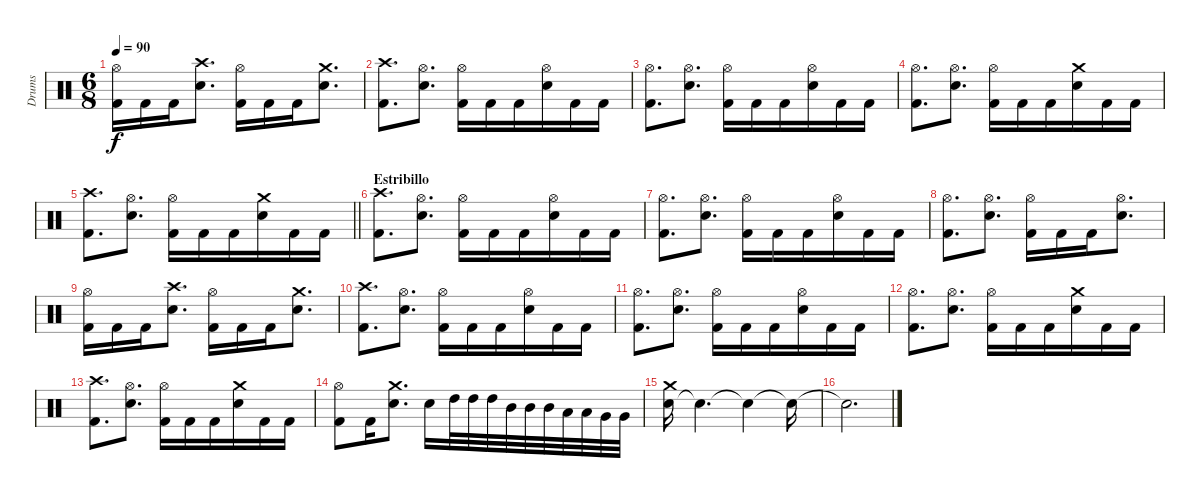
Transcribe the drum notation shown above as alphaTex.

\track ("Drums" "Drums") {instrument percussion}
\staff {score}
\articulation defaults
\ts (6 8)
\tempo 90
\clef neutral
\ks c
("Kick (hit) 2" "Hi-Hat (open)").16{dy f} "Kick (hit) 2".16 "Kick (hit) 2".16 ("Electric Snare (hit)" "Crash high (hit)").8{d} ("Kick (hit) 2" "Hi-Hat (open)").16 "Kick (hit) 2".16 "Kick (hit) 2".16 ("Electric Snare (hit)" "Crash medium (hit)").8{d} |
("Kick (hit) 2" "Crash high (hit)").8{d} ("Electric Snare (hit)" "Hi-Hat (open)").8{d} ("Kick (hit) 2" "Hi-Hat (open)").16 "Kick (hit) 2".16 "Kick (hit) 2".16 ("Electric Snare (hit)" "Hi-Hat (open)").16 "Kick (hit) 2".16 "Kick (hit) 2".16 |
("Kick (hit) 2" "Hi-Hat (open)").8{d} ("Electric Snare (hit)" "Hi-Hat (open)").8{d} ("Kick (hit) 2" "Hi-Hat (open)").16 "Kick (hit) 2".16 "Kick (hit) 2".16 ("Electric Snare (hit)" "Hi-Hat (open)").16 "Kick (hit) 2".16 "Kick (hit) 2".16 |
("Kick (hit) 2" "Hi-Hat (open)").8{d} ("Electric Snare (hit)" "Hi-Hat (open)").8{d} ("Kick (hit) 2" "Hi-Hat (open)").16 "Kick (hit) 2".16 "Kick (hit) 2".16 ("Electric Snare (hit)" "Crash medium (hit)").16 "Kick (hit) 2".16 "Kick (hit) 2".16 |
\barLineRight lightlight
("Kick (hit) 2" "Crash high (hit)").8{d} ("Electric Snare (hit)" "Hi-Hat (open)").8{d} ("Kick (hit) 2" "Hi-Hat (open)").16 "Kick (hit) 2".16 "Kick (hit) 2".16 ("Electric Snare (hit)" "Crash medium (hit)").16 "Kick (hit) 2".16 "Kick (hit) 2".16 |
\section ("" "Estribillo")
("Kick (hit) 2" "Crash high (hit)").8{d} ("Electric Snare (hit)" "Hi-Hat (open)").8{d} ("Kick (hit) 2" "Hi-Hat (open)").16 "Kick (hit) 2".16 "Kick (hit) 2".16 ("Electric Snare (hit)" "Hi-Hat (open)").16 "Kick (hit) 2".16 "Kick (hit) 2".16 |
("Kick (hit) 2" "Hi-Hat (open)").8{d} ("Electric Snare (hit)" "Hi-Hat (open)").8{d} ("Kick (hit) 2" "Hi-Hat (open)").16 "Kick (hit) 2".16 "Kick (hit) 2".16 ("Electric Snare (hit)" "Hi-Hat (open)").16 "Kick (hit) 2".16 "Kick (hit) 2".16 |
("Kick (hit) 2" "Hi-Hat (open)").8{d} ("Electric Snare (hit)" "Hi-Hat (open)").8{d} ("Kick (hit) 2" "Hi-Hat (open)").16 "Kick (hit) 2".16 "Kick (hit) 2".16 ("Electric Snare (hit)" "Hi-Hat (open)").8{d} |
("Kick (hit) 2" "Hi-Hat (open)").16 "Kick (hit) 2".16 "Kick (hit) 2".16 ("Electric Snare (hit)" "Crash high (hit)").8{d} ("Kick (hit) 2" "Hi-Hat (open)").16 "Kick (hit) 2".16 "Kick (hit) 2".16 ("Electric Snare (hit)" "Crash medium (hit)").8{d} |
("Kick (hit) 2" "Crash high (hit)").8{d} ("Electric Snare (hit)" "Hi-Hat (open)").8{d} ("Kick (hit) 2" "Hi-Hat (open)").16 "Kick (hit) 2".16 "Kick (hit) 2".16 ("Electric Snare (hit)" "Hi-Hat (open)").16 "Kick (hit) 2".16 "Kick (hit) 2".16 |
("Kick (hit) 2" "Hi-Hat (open)").8{d} ("Electric Snare (hit)" "Hi-Hat (open)").8{d} ("Kick (hit) 2" "Hi-Hat (open)").16 "Kick (hit) 2".16 "Kick (hit) 2".16 ("Electric Snare (hit)" "Hi-Hat (open)").16 "Kick (hit) 2".16 "Kick (hit) 2".16 |
("Kick (hit) 2" "Hi-Hat (open)").8{d} ("Electric Snare (hit)" "Hi-Hat (open)").8{d} ("Kick (hit) 2" "Hi-Hat (open)").16 "Kick (hit) 2".16 "Kick (hit) 2".16 ("Electric Snare (hit)" "Crash medium (hit)").16 "Kick (hit) 2".16 "Kick (hit) 2".16 |
("Kick (hit) 2" "Crash high (hit)").8{d} ("Electric Snare (hit)" "Hi-Hat (open)").8{d} ("Kick (hit) 2" "Hi-Hat (open)").16 "Kick (hit) 2".16 "Kick (hit) 2".16 ("Electric Snare (hit)" "Crash medium (hit)").16 "Kick (hit) 2".16 "Kick (hit) 2".16 |
("Kick (hit) 2" "Hi-Hat (open)").8 "Kick (hit) 2".16 ("Electric Snare (hit)" "Crash medium (hit)").8{d} "Electric Snare (hit)".16 "High Tom (hit)".32 "High Tom (hit)".32 "High Tom (hit)".32 "Mid Tom (hit)".32 "Mid Tom (hit)".32 "Mid Tom (hit)".32 "Low Tom (hit)".32 "Low Tom (hit)".32 "Very Low Tom (hit)".32 "Very Low Tom (hit)".32 |
("Snare (hit) 2" "Crash medium (hit)").16{volume 0} "Snare (hit)"{t}.4{d} "Snare (hit)"{t}.4 "Snare (hit)"{t}.16 |
"Snare (hit)"{t}.2{d}
